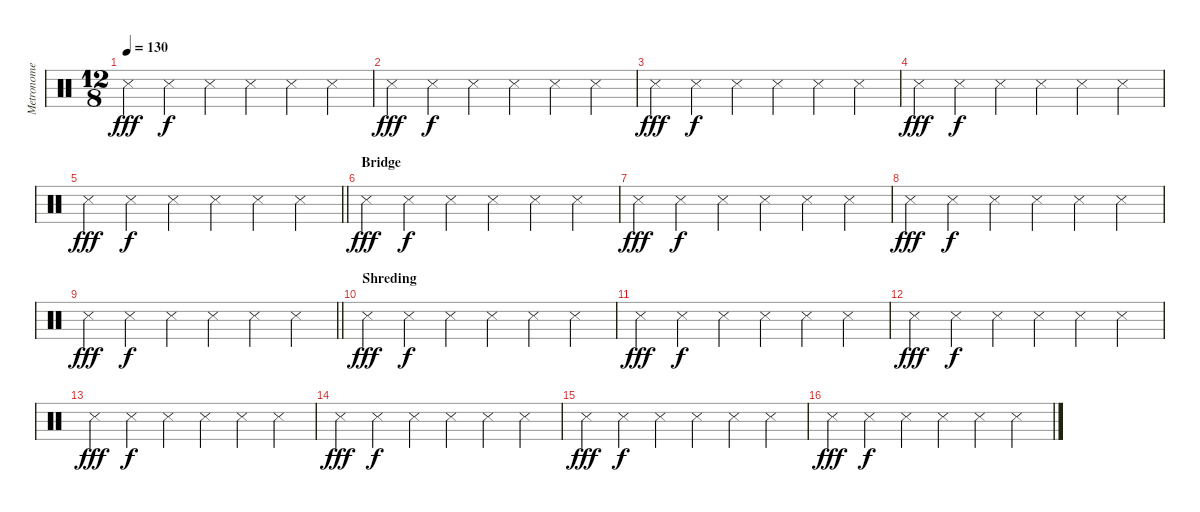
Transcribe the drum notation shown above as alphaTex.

\track ("Metronome" "Metronome") {instrument percussion}
\staff {score}
\articulation defaults
\ts (12 8)
\tempo 130
\clef neutral
\ks c "Snare (side stick) 3".4{dy fff} "Snare (side stick) 3".4{dy f} "Snare (side stick) 3".4 "Snare (side stick) 3".4 "Snare (side stick) 3".4 "Snare (side stick) 3".4
|
"Snare (side stick) 3".4{dy fff} "Snare (side stick) 3".4{dy f} "Snare (side stick) 3".4 "Snare (side stick) 3".4 "Snare (side stick) 3".4 "Snare (side stick) 3".4 |
"Snare (side stick) 3".4{dy fff} "Snare (side stick) 3".4{dy f} "Snare (side stick) 3".4 "Snare (side stick) 3".4 "Snare (side stick) 3".4 "Snare (side stick) 3".4 |
"Snare (side stick) 3".4{dy fff} "Snare (side stick) 3".4{dy f} "Snare (side stick) 3".4 "Snare (side stick) 3".4 "Snare (side stick) 3".4 "Snare (side stick) 3".4 |
\barLineRight lightlight "Snare (side stick) 3".4{dy fff} "Snare (side stick) 3".4{dy f} "Snare (side stick) 3".4 "Snare (side stick) 3".4 "Snare (side stick) 3".4 "Snare (side stick) 3".4
|
\section ("" "Bridge")
"Snare (side stick) 3".4{dy fff} "Snare (side stick) 3".4{dy f} "Snare (side stick) 3".4 "Snare (side stick) 3".4 "Snare (side stick) 3".4 "Snare (side stick) 3".4 |
"Snare (side stick) 3".4{dy fff} "Snare (side stick) 3".4{dy f} "Snare (side stick) 3".4 "Snare (side stick) 3".4 "Snare (side stick) 3".4 "Snare (side stick) 3".4 |
"Snare (side stick) 3".4{dy fff} "Snare (side stick) 3".4{dy f} "Snare (side stick) 3".4 "Snare (side stick) 3".4 "Snare (side stick) 3".4 "Snare (side stick) 3".4 |
\barLineRight lightlight "Snare (side stick) 3".4{dy fff} "Snare (side stick) 3".4{dy f} "Snare (side stick) 3".4 "Snare (side stick) 3".4 "Snare (side stick) 3".4 "Snare (side stick) 3".4
|
\section ("" "Shreding")
"Snare (side stick) 3".4{dy fff} "Snare (side stick) 3".4{dy f} "Snare (side stick) 3".4 "Snare (side stick) 3".4 "Snare (side stick) 3".4 "Snare (side stick) 3".4 |
"Snare (side stick) 3".4{dy fff} "Snare (side stick) 3".4{dy f} "Snare (side stick) 3".4 "Snare (side stick) 3".4 "Snare (side stick) 3".4 "Snare (side stick) 3".4 |
"Snare (side stick) 3".4{dy fff} "Snare (side stick) 3".4{dy f} "Snare (side stick) 3".4 "Snare (side stick) 3".4 "Snare (side stick) 3".4 "Snare (side stick) 3".4 |
"Snare (side stick) 3".4{dy fff} "Snare (side stick) 3".4{dy f} "Snare (side stick) 3".4 "Snare (side stick) 3".4 "Snare (side stick) 3".4 "Snare (side stick) 3".4 |
"Snare (side stick) 3".4{dy fff} "Snare (side stick) 3".4{dy f} "Snare (side stick) 3".4 "Snare (side stick) 3".4 "Snare (side stick) 3".4 "Snare (side stick) 3".4 |
"Snare (side stick) 3".4{dy fff} "Snare (side stick) 3".4{dy f} "Snare (side stick) 3".4 "Snare (side stick) 3".4 "Snare (side stick) 3".4 "Snare (side stick) 3".4 |
"Snare (side stick) 3".4{dy fff} "Snare (side stick) 3".4{dy f} "Snare (side stick) 3".4 "Snare (side stick) 3".4 "Snare (side stick) 3".4 "Snare (side stick) 3".4
